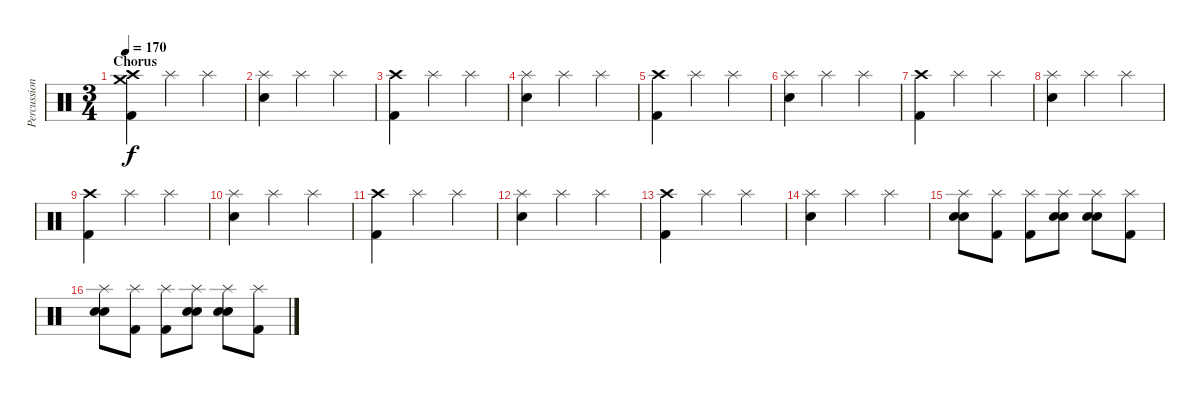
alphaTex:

\track ("Percussion" "Percussion") {instrument percussion}
\staff {score}
\articulation defaults
\ts (3 4)
\section ("" "Chorus")
\tempo 170
\clef neutral
\ks c
("Crash high (hit)" "Crash medium (hit)" "Kick (hit) 2").4{dy f} "Splash (hit)".4 "Splash (hit)".4 |
("Splash (hit)" "Electric Snare (hit)").4 "Splash (hit)".4 "Splash (hit)".4 |
("Crash high (hit)" "Kick (hit) 2").4 "Splash (hit)".4 "Splash (hit)".4 |
("Splash (hit)" "Electric Snare (hit)").4 "Splash (hit)".4 "Splash (hit)".4 |
("Crash high (hit)" "Kick (hit) 2").4 "Splash (hit)".4 "Splash (hit)".4 |
("Splash (hit)" "Electric Snare (hit)").4 "Splash (hit)".4 "Splash (hit)".4 |
("Crash high (hit)" "Kick (hit) 2").4 "Splash (hit)".4 "Splash (hit)".4 |
("Splash (hit)" "Electric Snare (hit)").4 "Splash (hit)".4 "Splash (hit)".4 |
("Crash high (hit)" "Kick (hit) 2").4 "Splash (hit)".4 "Splash (hit)".4 |
("Splash (hit)" "Electric Snare (hit)").4 "Splash (hit)".4 "Splash (hit)".4 |
("Crash high (hit)" "Kick (hit) 2").4 "Splash (hit)".4 "Splash (hit)".4 |
("Splash (hit)" "Electric Snare (hit)").4 "Splash (hit)".4 "Splash (hit)".4 |
("Crash high (hit)" "Kick (hit) 2").4 "Splash (hit)".4 "Splash (hit)".4 |
("Splash (hit)" "Electric Snare (hit)").4 "Splash (hit)".4 "Splash (hit)".4 |
("Splash (hit)" "Electric Snare (hit)" "Electric Snare (hit)").8 ("Splash (hit)" "Kick (hit) 2").8 ("Splash (hit)" "Kick (hit) 2").8 ("Splash (hit)" "Electric Snare (hit)" "Electric Snare (hit)").8 ("Splash (hit)" "Electric Snare (hit)" "Electric Snare (hit)").8 ("Splash (hit)" "Kick (hit) 2").8 |
("Splash (hit)" "Electric Snare (hit)" "Electric Snare (hit)").8 ("Splash (hit)" "Kick (hit) 2").8 ("Splash (hit)" "Kick (hit) 2").8 ("Splash (hit)" "Electric Snare (hit)" "Electric Snare (hit)").8 ("Splash (hit)" "Electric Snare (hit)" "Electric Snare (hit)").8 ("Splash (hit)" "Kick (hit) 2").8
